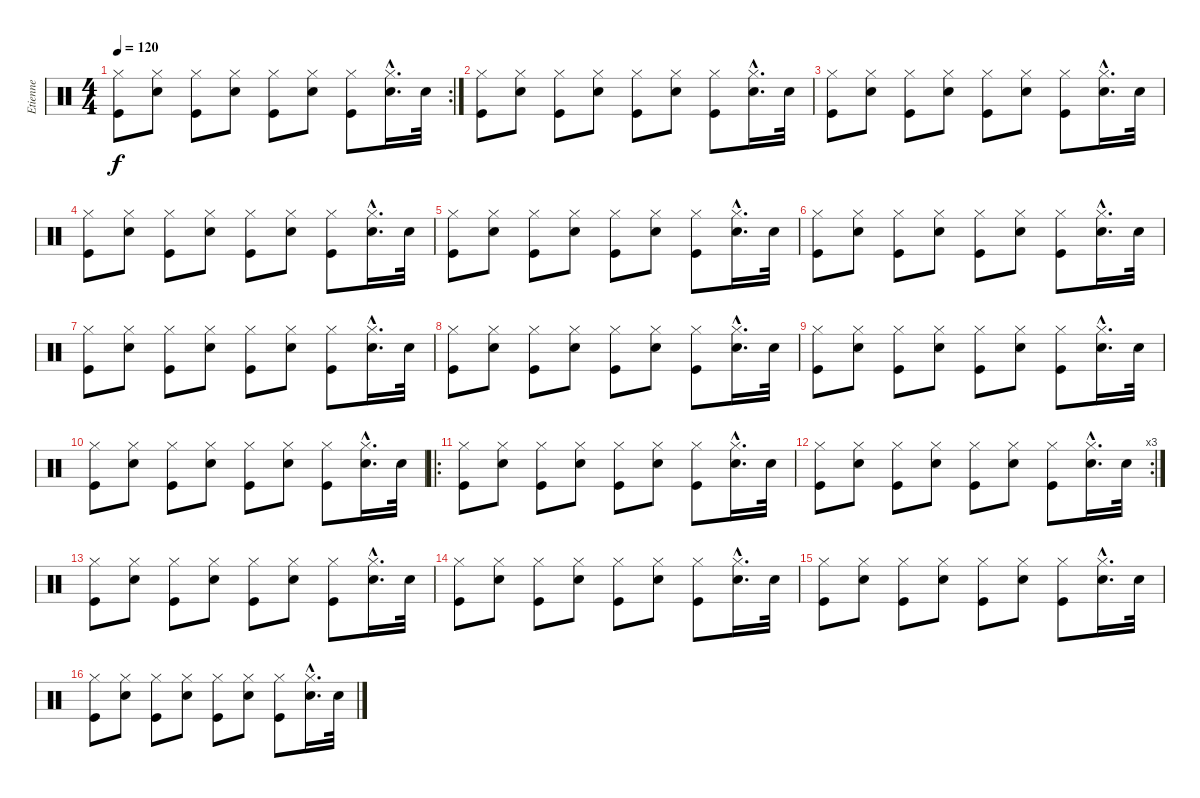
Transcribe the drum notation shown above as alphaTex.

\track ("Etienne" "Etienne") {instrument percussion}
\staff {score}
\articulation defaults
\rc 2
\ts (4 4)
\tempo 120
\clef neutral
\ks c
("Hi-Hat (closed)" "Kick (hit)").8{dy f} ("Hi-Hat (closed)" "Snare (hit) 2").8 ("Hi-Hat (closed)" "Kick (hit)").8 ("Hi-Hat (closed)" "Snare (hit) 2").8 ("Hi-Hat (closed)" "Kick (hit)").8 ("Hi-Hat (closed)" "Snare (hit) 2").8 ("Hi-Hat (closed)" "Kick (hit)").8 ("Hi-Hat (closed)"{hac} "Snare (hit) 2"{hac}).16{d} "Snare (hit) 2".32 |
("Hi-Hat (closed)" "Kick (hit)").8 ("Hi-Hat (closed)" "Snare (hit) 2").8 ("Hi-Hat (closed)" "Kick (hit)").8 ("Hi-Hat (closed)" "Snare (hit) 2").8 ("Hi-Hat (closed)" "Kick (hit)").8 ("Hi-Hat (closed)" "Snare (hit) 2").8 ("Hi-Hat (closed)" "Kick (hit)").8 ("Hi-Hat (closed)"{hac} "Snare (hit) 2"{hac}).16{d} "Snare (hit) 2".32 |
("Hi-Hat (closed)" "Kick (hit)").8 ("Hi-Hat (closed)" "Snare (hit) 2").8 ("Hi-Hat (closed)" "Kick (hit)").8 ("Hi-Hat (closed)" "Snare (hit) 2").8 ("Hi-Hat (closed)" "Kick (hit)").8 ("Hi-Hat (closed)" "Snare (hit) 2").8 ("Hi-Hat (closed)" "Kick (hit)").8 ("Hi-Hat (closed)"{hac} "Snare (hit) 2"{hac}).16{d} "Snare (hit) 2".32 |
("Hi-Hat (closed)" "Kick (hit)").8 ("Hi-Hat (closed)" "Snare (hit) 2").8 ("Hi-Hat (closed)" "Kick (hit)").8 ("Hi-Hat (closed)" "Snare (hit) 2").8 ("Hi-Hat (closed)" "Kick (hit)").8 ("Hi-Hat (closed)" "Snare (hit) 2").8 ("Hi-Hat (closed)" "Kick (hit)").8 ("Hi-Hat (closed)"{hac} "Snare (hit) 2"{hac}).16{d} "Snare (hit) 2".32 |
("Hi-Hat (closed)" "Kick (hit)").8 ("Hi-Hat (closed)" "Snare (hit) 2").8 ("Hi-Hat (closed)" "Kick (hit)").8 ("Hi-Hat (closed)" "Snare (hit) 2").8 ("Hi-Hat (closed)" "Kick (hit)").8 ("Hi-Hat (closed)" "Snare (hit) 2").8 ("Hi-Hat (closed)" "Kick (hit)").8 ("Hi-Hat (closed)"{hac} "Snare (hit) 2"{hac}).16{d} "Snare (hit) 2".32 |
("Hi-Hat (closed)" "Kick (hit)").8 ("Hi-Hat (closed)" "Snare (hit) 2").8 ("Hi-Hat (closed)" "Kick (hit)").8 ("Hi-Hat (closed)" "Snare (hit) 2").8 ("Hi-Hat (closed)" "Kick (hit)").8 ("Hi-Hat (closed)" "Snare (hit) 2").8 ("Hi-Hat (closed)" "Kick (hit)").8 ("Hi-Hat (closed)"{hac} "Snare (hit) 2"{hac}).16{d} "Snare (hit) 2".32 |
("Hi-Hat (closed)" "Kick (hit)").8 ("Hi-Hat (closed)" "Snare (hit) 2").8 ("Hi-Hat (closed)" "Kick (hit)").8 ("Hi-Hat (closed)" "Snare (hit) 2").8 ("Hi-Hat (closed)" "Kick (hit)").8 ("Hi-Hat (closed)" "Snare (hit) 2").8 ("Hi-Hat (closed)" "Kick (hit)").8 ("Hi-Hat (closed)"{hac} "Snare (hit) 2"{hac}).16{d} "Snare (hit) 2".32 |
("Hi-Hat (closed)" "Kick (hit)").8 ("Hi-Hat (closed)" "Snare (hit) 2").8 ("Hi-Hat (closed)" "Kick (hit)").8 ("Hi-Hat (closed)" "Snare (hit) 2").8 ("Hi-Hat (closed)" "Kick (hit)").8 ("Hi-Hat (closed)" "Snare (hit) 2").8 ("Hi-Hat (closed)" "Kick (hit)").8 ("Hi-Hat (closed)"{hac} "Snare (hit) 2"{hac}).16{d} "Snare (hit) 2".32 |
("Hi-Hat (closed)" "Kick (hit)").8 ("Hi-Hat (closed)" "Snare (hit) 2").8 ("Hi-Hat (closed)" "Kick (hit)").8 ("Hi-Hat (closed)" "Snare (hit) 2").8 ("Hi-Hat (closed)" "Kick (hit)").8 ("Hi-Hat (closed)" "Snare (hit) 2").8 ("Hi-Hat (closed)" "Kick (hit)").8 ("Hi-Hat (closed)"{hac} "Snare (hit) 2"{hac}).16{d} "Snare (hit) 2".32 |
("Hi-Hat (closed)" "Kick (hit)").8 ("Hi-Hat (closed)" "Snare (hit) 2").8 ("Hi-Hat (closed)" "Kick (hit)").8 ("Hi-Hat (closed)" "Snare (hit) 2").8 ("Hi-Hat (closed)" "Kick (hit)").8 ("Hi-Hat (closed)" "Snare (hit) 2").8 ("Hi-Hat (closed)" "Kick (hit)").8 ("Hi-Hat (closed)"{hac} "Snare (hit) 2"{hac}).16{d} "Snare (hit) 2".32 |
\ro
("Hi-Hat (closed)" "Kick (hit)").8 ("Hi-Hat (closed)" "Snare (hit) 2").8 ("Hi-Hat (closed)" "Kick (hit)").8 ("Hi-Hat (closed)" "Snare (hit) 2").8 ("Hi-Hat (closed)" "Kick (hit)").8 ("Hi-Hat (closed)" "Snare (hit) 2").8 ("Hi-Hat (closed)" "Kick (hit)").8 ("Hi-Hat (closed)"{hac} "Snare (hit) 2"{hac}).16{d} "Snare (hit) 2".32 |
\rc 3
("Hi-Hat (closed)" "Kick (hit)").8 ("Hi-Hat (closed)" "Snare (hit) 2").8 ("Hi-Hat (closed)" "Kick (hit)").8 ("Hi-Hat (closed)" "Snare (hit) 2").8 ("Hi-Hat (closed)" "Kick (hit)").8 ("Hi-Hat (closed)" "Snare (hit) 2").8 ("Hi-Hat (closed)" "Kick (hit)").8 ("Hi-Hat (closed)"{hac} "Snare (hit) 2"{hac}).16{d} "Snare (hit) 2".32 |
("Hi-Hat (closed)" "Kick (hit)").8 ("Hi-Hat (closed)" "Snare (hit) 2").8 ("Hi-Hat (closed)" "Kick (hit)").8 ("Hi-Hat (closed)" "Snare (hit) 2").8 ("Hi-Hat (closed)" "Kick (hit)").8 ("Hi-Hat (closed)" "Snare (hit) 2").8 ("Hi-Hat (closed)" "Kick (hit)").8 ("Hi-Hat (closed)"{hac} "Snare (hit) 2"{hac}).16{d} "Snare (hit) 2".32 |
("Hi-Hat (closed)" "Kick (hit)").8 ("Hi-Hat (closed)" "Snare (hit) 2").8 ("Hi-Hat (closed)" "Kick (hit)").8 ("Hi-Hat (closed)" "Snare (hit) 2").8 ("Hi-Hat (closed)" "Kick (hit)").8 ("Hi-Hat (closed)" "Snare (hit) 2").8 ("Hi-Hat (closed)" "Kick (hit)").8 ("Hi-Hat (closed)"{hac} "Snare (hit) 2"{hac}).16{d} "Snare (hit) 2".32 |
("Hi-Hat (closed)" "Kick (hit)").8 ("Hi-Hat (closed)" "Snare (hit) 2").8 ("Hi-Hat (closed)" "Kick (hit)").8 ("Hi-Hat (closed)" "Snare (hit) 2").8 ("Hi-Hat (closed)" "Kick (hit)").8 ("Hi-Hat (closed)" "Snare (hit) 2").8 ("Hi-Hat (closed)" "Kick (hit)").8 ("Hi-Hat (closed)"{hac} "Snare (hit) 2"{hac}).16{d} "Snare (hit) 2".32 |
("Hi-Hat (closed)" "Kick (hit)").8 ("Hi-Hat (closed)" "Snare (hit) 2").8 ("Hi-Hat (closed)" "Kick (hit)").8 ("Hi-Hat (closed)" "Snare (hit) 2").8 ("Hi-Hat (closed)" "Kick (hit)").8 ("Hi-Hat (closed)" "Snare (hit) 2").8 ("Hi-Hat (closed)" "Kick (hit)").8 ("Hi-Hat (closed)"{hac} "Snare (hit) 2"{hac}).16{d} "Snare (hit) 2".32
